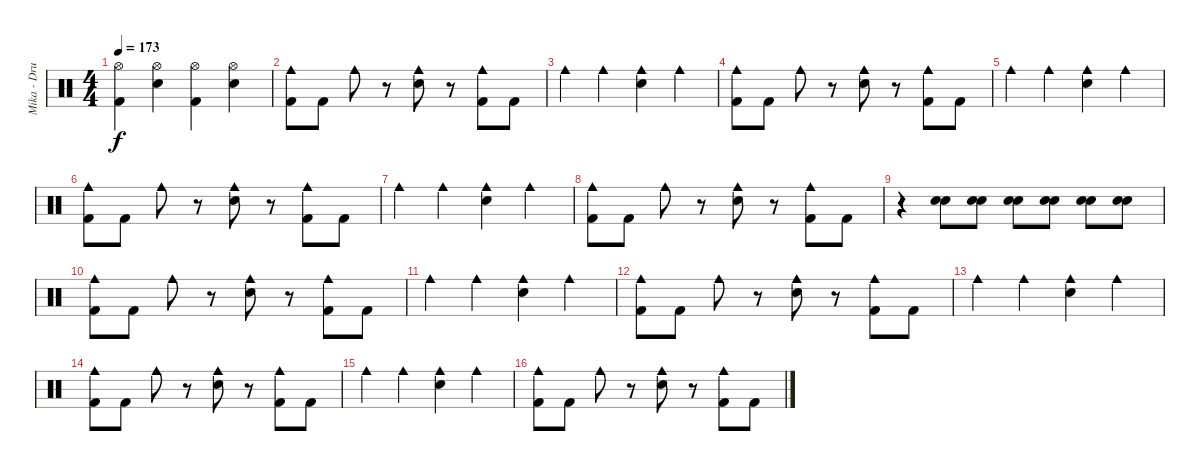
\track ("Mika - Drums" "Mika - Dru") {instrument percussion}
\staff {score}
\articulation defaults
\ts (4 4)
\tempo 173
\clef neutral
\ks c
("Hi-Hat (open)" "Kick (hit) 2").4{dy f} ("Hi-Hat (open)" "Electric Snare (hit)").4 ("Hi-Hat (open)" "Kick (hit) 2").4 ("Hi-Hat (open)" "Electric Snare (hit)").4 |
("Cowbell medium (hit)" "Kick (hit) 2").8 "Kick (hit) 2".8 "Cowbell medium (hit)".8 r.8 ("Cowbell medium (hit)" "Electric Snare (hit)").8 r.8 ("Cowbell medium (hit)" "Kick (hit) 2").8 "Kick (hit) 2".8 |
"Cowbell medium (hit)".4 "Cowbell medium (hit)".4 ("Cowbell medium (hit)" "Electric Snare (hit)").4 "Cowbell medium (hit)".4 |
("Cowbell medium (hit)" "Kick (hit) 2").8 "Kick (hit) 2".8 "Cowbell medium (hit)".8 r.8 ("Cowbell medium (hit)" "Electric Snare (hit)").8 r.8 ("Cowbell medium (hit)" "Kick (hit) 2").8 "Kick (hit) 2".8 |
"Cowbell medium (hit)".4 "Cowbell medium (hit)".4 ("Cowbell medium (hit)" "Electric Snare (hit)").4 "Cowbell medium (hit)".4 |
("Cowbell medium (hit)" "Kick (hit) 2").8 "Kick (hit) 2".8 "Cowbell medium (hit)".8 r.8 ("Cowbell medium (hit)" "Electric Snare (hit)").8 r.8 ("Cowbell medium (hit)" "Kick (hit) 2").8 "Kick (hit) 2".8 |
"Cowbell medium (hit)".4 "Cowbell medium (hit)".4 ("Cowbell medium (hit)" "Electric Snare (hit)").4 "Cowbell medium (hit)".4 |
("Cowbell medium (hit)" "Kick (hit) 2").8 "Kick (hit) 2".8 "Cowbell medium (hit)".8 r.8 ("Cowbell medium (hit)" "Electric Snare (hit)").8 r.8 ("Cowbell medium (hit)" "Kick (hit) 2").8 "Kick (hit) 2".8 |
r.4 ("Snare (hit) 2" "Electric Snare (hit)").8 ("Snare (hit) 2" "Electric Snare (hit)").8 ("Snare (hit) 2" "Electric Snare (hit)").8 ("Snare (hit) 2" "Electric Snare (hit)").8 ("Snare (hit) 2" "Electric Snare (hit)").8 ("Snare (hit) 2" "Electric Snare (hit)").8 |
("Cowbell medium (hit)" "Kick (hit) 2").8 "Kick (hit) 2".8 "Cowbell medium (hit)".8 r.8 ("Cowbell medium (hit)" "Electric Snare (hit)").8 r.8 ("Cowbell medium (hit)" "Kick (hit) 2").8 "Kick (hit) 2".8 |
"Cowbell medium (hit)".4 "Cowbell medium (hit)".4 ("Cowbell medium (hit)" "Electric Snare (hit)").4 "Cowbell medium (hit)".4 |
("Cowbell medium (hit)" "Kick (hit) 2").8 "Kick (hit) 2".8 "Cowbell medium (hit)".8 r.8 ("Cowbell medium (hit)" "Electric Snare (hit)").8 r.8 ("Cowbell medium (hit)" "Kick (hit) 2").8 "Kick (hit) 2".8 |
"Cowbell medium (hit)".4 "Cowbell medium (hit)".4 ("Cowbell medium (hit)" "Electric Snare (hit)").4 "Cowbell medium (hit)".4 |
("Cowbell medium (hit)" "Kick (hit) 2").8 "Kick (hit) 2".8 "Cowbell medium (hit)".8 r.8 ("Cowbell medium (hit)" "Electric Snare (hit)").8 r.8 ("Cowbell medium (hit)" "Kick (hit) 2").8 "Kick (hit) 2".8 |
"Cowbell medium (hit)".4 "Cowbell medium (hit)".4 ("Cowbell medium (hit)" "Electric Snare (hit)").4 "Cowbell medium (hit)".4 |
("Cowbell medium (hit)" "Kick (hit) 2").8 "Kick (hit) 2".8 "Cowbell medium (hit)".8 r.8 ("Cowbell medium (hit)" "Electric Snare (hit)").8 r.8 ("Cowbell medium (hit)" "Kick (hit) 2").8 "Kick (hit) 2".8
